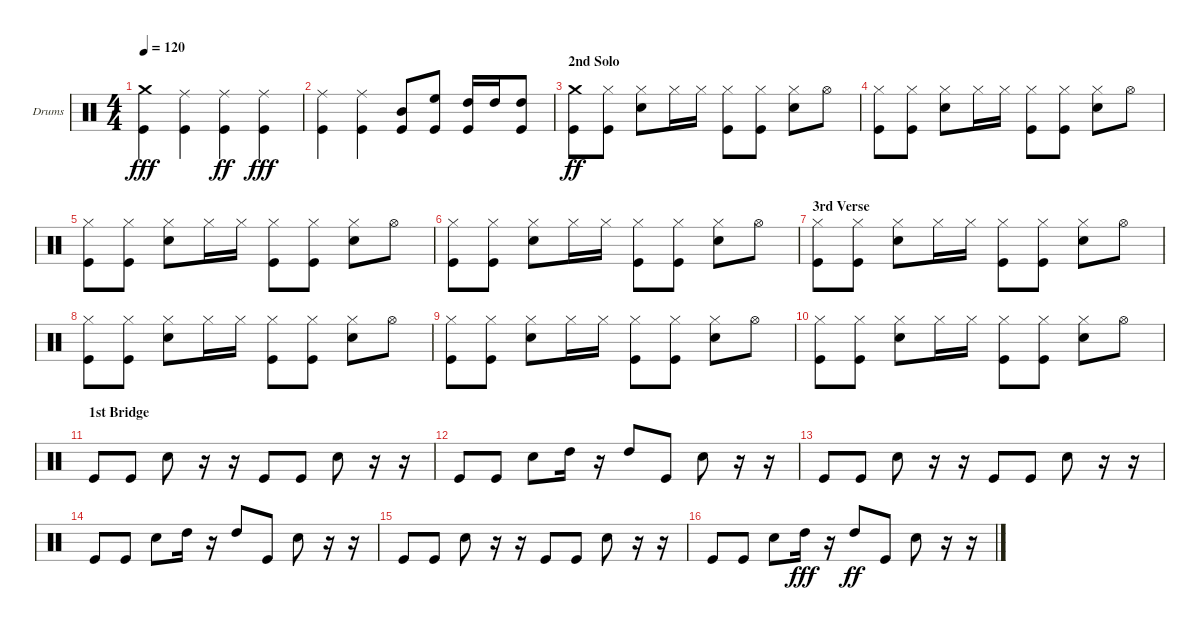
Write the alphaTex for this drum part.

\defaultSystemsLayout 4
\bracketExtendMode groupsimilarinstruments
\firstSystemTrackNameOrientation horizontal
\otherSystemsTrackNameOrientation horizontal
\track ("Drumkit" "Drums") {instrument percussion}
\staff {score}
\articulation defaults
\ts (4 4)
\tempo 120
\clef neutral
\ks c
("Crash medium (hit)" "Kick (hit)").4{dy fff} ("Ride (middle)" "Kick (hit)").4 ("Kick (hit)" "Ride (middle)").4{dy ff} ("Ride (middle)" "Kick (hit)").4{dy fff} |
("Ride (middle)" "Kick (hit)").4 ("Ride (middle)" "Kick (hit)").4 ("Mid Tom (hit)" "Kick (hit)").8 ("High Floor Tom (hit)" "Kick (hit)").8 ("High Tom (hit)" "Kick (hit)").16 "High Tom (hit)".16 ("High Tom (hit)" "Kick (hit)").8 |
\section ("" "2nd Solo ")
("Kick (hit)" "Crash medium (hit)").8{dy ff} ("Kick (hit)" "Hi-Hat (closed)").8 ("Snare (hit) 2" "Hi-Hat (closed)").8 "Hi-Hat (closed)".16 "Hi-Hat (closed)".16 ("Kick (hit)" "Hi-Hat (closed)").8 ("Hi-Hat (closed)" "Kick (hit)").8 ("Hi-Hat (closed)" "Snare (hit) 2").8 "Hi-Hat (open)".8 |
("Hi-Hat (closed)" "Kick (hit)").8 ("Kick (hit)" "Hi-Hat (closed)").8 ("Snare (hit) 2" "Hi-Hat (closed)").8 "Hi-Hat (closed)".16 "Hi-Hat (closed)".16 ("Kick (hit)" "Hi-Hat (closed)").8 ("Hi-Hat (closed)" "Kick (hit)").8 ("Hi-Hat (closed)" "Snare (hit) 2").8 "Hi-Hat (open)".8 |
("Hi-Hat (closed)" "Kick (hit)").8 ("Kick (hit)" "Hi-Hat (closed)").8 ("Snare (hit) 2" "Hi-Hat (closed)").8 "Hi-Hat (closed)".16 "Hi-Hat (closed)".16 ("Kick (hit)" "Hi-Hat (closed)").8 ("Hi-Hat (closed)" "Kick (hit)").8 ("Hi-Hat (closed)" "Snare (hit) 2").8 "Hi-Hat (open)".8 |
("Hi-Hat (closed)" "Kick (hit)").8 ("Hi-Hat (closed)" "Kick (hit)").8 ("Hi-Hat (closed)" "Snare (hit) 2").8 "Hi-Hat (closed)".16 "Hi-Hat (closed)".16 ("Hi-Hat (closed)" "Kick (hit)").8 ("Hi-Hat (closed)" "Kick (hit)").8 ("Hi-Hat (closed)" "Snare (hit) 2").8 "Hi-Hat (open)".8 |
\section ("" "3rd Verse")
("Hi-Hat (closed)" "Kick (hit)").8 ("Hi-Hat (closed)" "Kick (hit)").8 ("Snare (hit) 2" "Hi-Hat (closed)").8 "Hi-Hat (closed)".16 "Hi-Hat (closed)".16 ("Kick (hit)" "Hi-Hat (closed)").8 ("Hi-Hat (closed)" "Kick (hit)").8 ("Hi-Hat (closed)" "Snare (hit) 2").8 "Hi-Hat (open)".8 |
("Hi-Hat (closed)" "Kick (hit)").8 ("Hi-Hat (closed)" "Kick (hit)").8 ("Hi-Hat (closed)" "Snare (hit) 2").8 "Hi-Hat (closed)".16 "Hi-Hat (closed)".16 ("Hi-Hat (closed)" "Kick (hit)").8 ("Kick (hit)" "Hi-Hat (closed)").8 ("Hi-Hat (closed)" "Snare (hit) 2").8 "Hi-Hat (open)".8 |
("Hi-Hat (closed)" "Kick (hit)").8 ("Hi-Hat (closed)" "Kick (hit)").8 ("Hi-Hat (closed)" "Snare (hit) 2").8 "Hi-Hat (closed)".16 "Hi-Hat (closed)".16 ("Kick (hit)" "Hi-Hat (closed)").8 ("Kick (hit)" "Hi-Hat (closed)").8 ("Snare (hit) 2" "Hi-Hat (closed)").8 "Hi-Hat (open)".8 |
("Kick (hit)" "Hi-Hat (closed)").8 ("Hi-Hat (closed)" "Kick (hit)").8 ("Snare (hit) 2" "Hi-Hat (closed)").8 "Hi-Hat (closed)".16 "Hi-Hat (closed)".16 ("Hi-Hat (closed)" "Kick (hit)").8 ("Hi-Hat (closed)" "Kick (hit)").8 ("Hi-Hat (closed)" "Snare (hit) 2").8 "Hi-Hat (open)".8 |
\section ("" "1st Bridge")
"Kick (hit)".8 "Kick (hit)".8 "Snare (hit) 2".8 r.16 r.16 "Kick (hit)".8 "Kick (hit)".8 "Snare (hit) 2".8 r.16 r.16 |
"Kick (hit)".8 "Kick (hit)".8 "Snare (hit) 2".8 "High Tom (hit)".16 r.16 "High Tom (hit)".8 "Kick (hit)".8 "Snare (hit) 2".8 r.16 r.16 |
"Kick (hit)".8 "Kick (hit)".8 "Snare (hit) 2".8 r.16 r.16 "Kick (hit)".8 "Kick (hit)".8 "Snare (hit) 2".8 r.16 r.16 |
"Kick (hit)".8 "Kick (hit)".8 "Snare (hit) 2".8 "High Tom (hit)".16 r.16 "High Tom (hit)".8 "Kick (hit)".8 "Snare (hit) 2".8 r.16 r.16 |
"Kick (hit)".8 "Kick (hit)".8 "Snare (hit) 2".8 r.16 r.16 "Kick (hit)".8 "Kick (hit)".8 "Snare (hit) 2".8 r.16 r.16 |
"Kick (hit)".8 "Kick (hit)".8 "Snare (hit) 2".8 "High Tom (hit)".16{dy fff} r.16 "High Tom (hit)".8{dy ff} "Kick (hit)".8 "Snare (hit) 2".8 r.16 r.16
